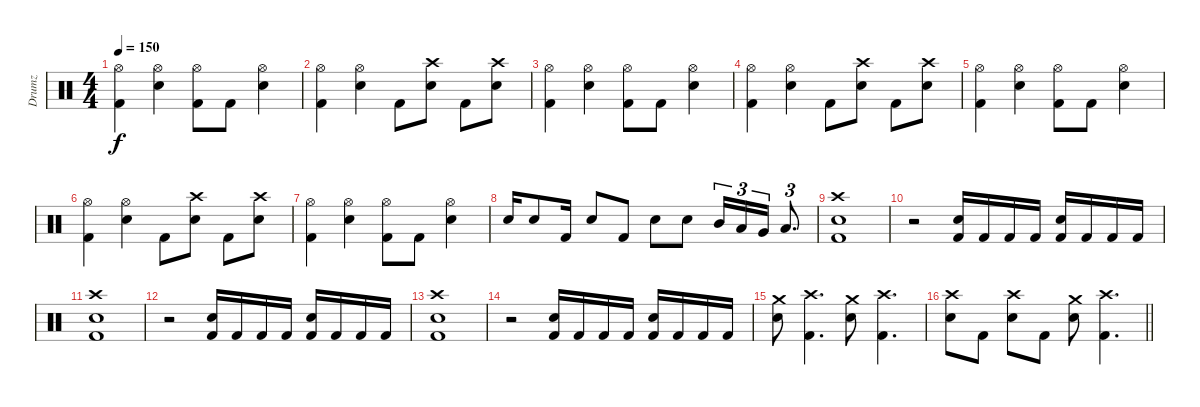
\track ("Drumz" "Drumz") {instrument percussion}
\staff {score}
\articulation defaults
\ts (4 4)
\tempo 150
\clef neutral
\ks c
("Hi-Hat (open)" "Kick (hit) 2").4{dy f} ("Hi-Hat (open)" "Electric Snare (hit)").4 ("Hi-Hat (open)" "Kick (hit) 2").8 "Kick (hit) 2".8 ("Hi-Hat (open)" "Electric Snare (hit)").4 |
("Hi-Hat (open)" "Kick (hit) 2").4 ("Hi-Hat (open)" "Electric Snare (hit)").4 "Kick (hit) 2".8 ("Crash high (hit)" "Electric Snare (hit)").8 "Kick (hit) 2".8 ("Crash high (hit)" "Electric Snare (hit)").8 |
("Hi-Hat (open)" "Kick (hit) 2").4 ("Hi-Hat (open)" "Electric Snare (hit)").4 ("Hi-Hat (open)" "Kick (hit) 2").8 "Kick (hit) 2".8 ("Hi-Hat (open)" "Electric Snare (hit)").4 |
("Hi-Hat (open)" "Kick (hit) 2").4 ("Hi-Hat (open)" "Electric Snare (hit)").4 "Kick (hit) 2".8 ("Crash high (hit)" "Electric Snare (hit)").8 "Kick (hit) 2".8 ("Crash high (hit)" "Electric Snare (hit)").8 |
("Hi-Hat (open)" "Kick (hit) 2").4 ("Hi-Hat (open)" "Electric Snare (hit)").4 ("Hi-Hat (open)" "Kick (hit) 2").8 "Kick (hit) 2".8 ("Hi-Hat (open)" "Electric Snare (hit)").4 |
("Hi-Hat (open)" "Kick (hit) 2").4 ("Hi-Hat (open)" "Electric Snare (hit)").4 "Kick (hit) 2".8 ("Crash high (hit)" "Electric Snare (hit)").8 "Kick (hit) 2".8 ("Crash high (hit)" "Electric Snare (hit)").8 |
("Hi-Hat (open)" "Kick (hit) 2").4 ("Hi-Hat (open)" "Electric Snare (hit)").4 ("Hi-Hat (open)" "Kick (hit) 2").8 "Kick (hit) 2".8 ("Hi-Hat (open)" "Electric Snare (hit)").4 |
"Electric Snare (hit)".16 "Electric Snare (hit)".8 "Kick (hit) 2".16 "Electric Snare (hit)".8 "Kick (hit) 2".8 "Electric Snare (hit)".8 "Electric Snare (hit)".8 "Mid Tom (hit)".16{tu (3 2)} "Low Tom (hit)".16{tu (3 2)} "Very Low Tom (hit)".16{tu (3 2)} "Low Floor Tom (hit)".8{d tu (3 2)} |
("Crash high (hit)" "Electric Snare (hit)" "Kick (hit) 2").1 |
r.2 ("Electric Snare (hit)" "Kick (hit) 2").16 "Kick (hit) 2".16 "Kick (hit) 2".16 "Kick (hit) 2".16 ("Electric Snare (hit)" "Kick (hit) 2").16 "Kick (hit) 2".16 "Kick (hit) 2".16 "Kick (hit) 2".16 |
("Crash high (hit)" "Electric Snare (hit)" "Kick (hit) 2").1 |
r.2 ("Electric Snare (hit)" "Kick (hit) 2").16 "Kick (hit) 2".16 "Kick (hit) 2".16 "Kick (hit) 2".16 ("Electric Snare (hit)" "Kick (hit) 2").16 "Kick (hit) 2".16 "Kick (hit) 2".16 "Kick (hit) 2".16 |
("Crash high (hit)" "Electric Snare (hit)" "Kick (hit) 2").1 |
r.2 ("Electric Snare (hit)" "Kick (hit) 2").16 "Kick (hit) 2".16 "Kick (hit) 2".16 "Kick (hit) 2".16 ("Electric Snare (hit)" "Kick (hit) 2").16 "Kick (hit) 2".16 "Kick (hit) 2".16 "Kick (hit) 2".16 |
("Crash medium (hit)" "Electric Snare (hit)").8 ("Crash high (hit)" "Kick (hit) 2").4{d} ("Crash medium (hit)" "Electric Snare (hit)").8 ("Crash high (hit)" "Kick (hit) 2").4{d} |
\barLineRight lightlight
("Crash high (hit)" "Electric Snare (hit)").8 "Kick (hit) 2".8 ("Crash high (hit)" "Electric Snare (hit)").8 "Kick (hit) 2".8 ("Crash medium (hit)" "Electric Snare (hit)").8 ("Crash high (hit)" "Kick (hit) 2").4{d}
